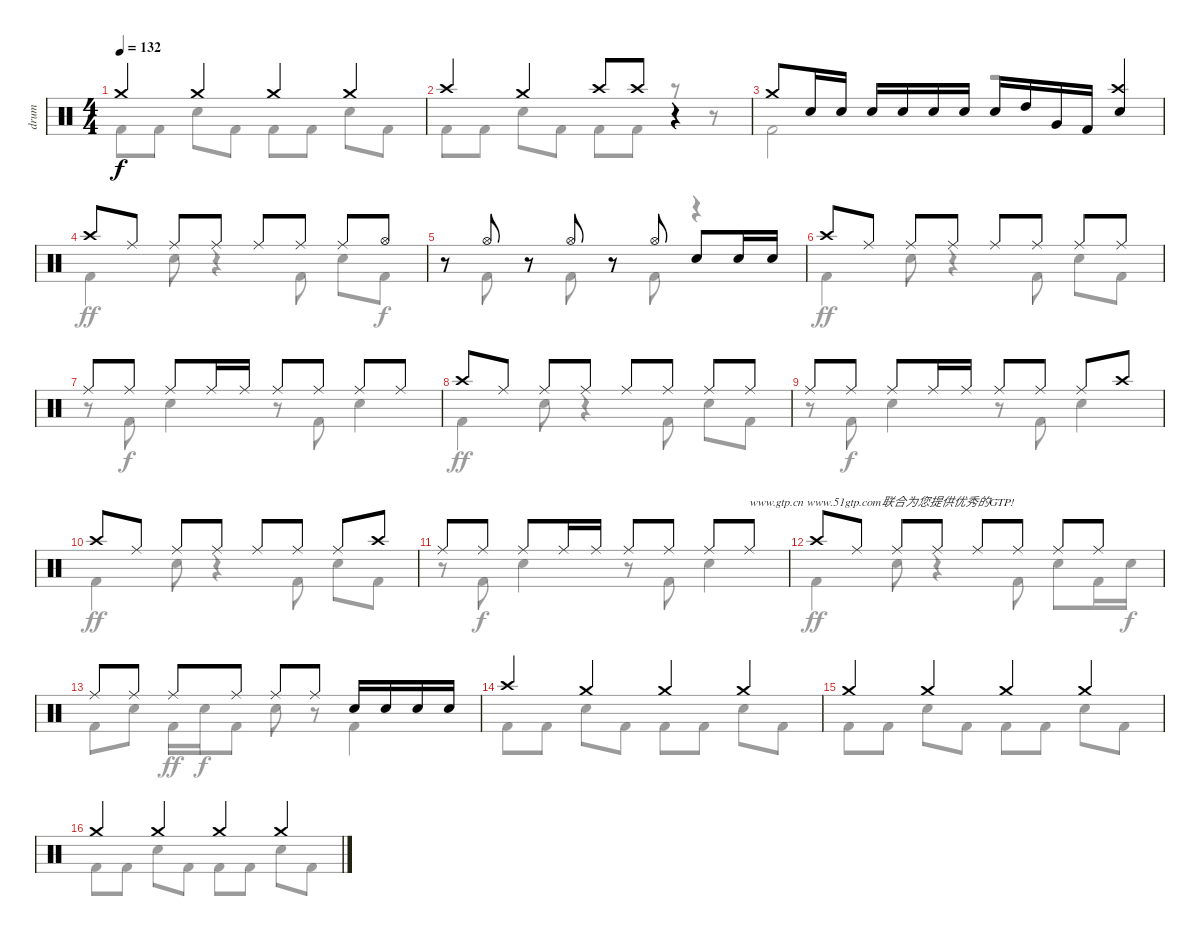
\track ("drum" "drum") {instrument percussion}
\staff {score}
\articulation defaults
\voice
\ts (4 4)
\tempo 132
\clef neutral
\ks c "Crash medium (hit)".4{dy f} "Crash medium (hit)".4 "Crash medium (hit)".4 "Crash medium (hit)".4
|
"Crash high (hit)".4 "Crash medium (hit)".4 "Crash high (hit)".8 "Crash high (hit)".8 r.4 |
"Crash medium (hit)".8 "Snare (hit) 2".16 "Snare (hit) 2".16 "Snare (hit) 2".16 "Snare (hit) 2".16 "Snare (hit) 2".16 "Snare (hit) 2".16 "Snare (hit) 2".16 "High Tom (hit)".16 "Very Low Tom (hit)".16 "Kick (hit) 2".16 ("Snare (hit) 2" "Crash high (hit)").4 |
"Crash high (hit)".8 "Ride (middle)".8 "Ride (middle)".8 "Ride (middle)".8 "Ride (middle)".8 "Ride (middle)".8 "Ride (middle)".8 "Hi-Hat (open)".8 |
r.8 "Hi-Hat (open)".8 r.8 "Hi-Hat (open)".8 r.8 "Hi-Hat (open)".8 "Snare (hit) 2".8 "Snare (hit) 2".16 "Snare (hit) 2".16 |
"Crash high (hit)".8 "Ride (middle)".8 "Ride (middle)".8 "Ride (middle)".8 "Ride (middle)".8 "Ride (middle)".8 "Ride (middle)".8 "Ride (middle)".8 |
"Ride (middle)".8 "Ride (middle)".8 "Ride (middle)".8 "Ride (middle)".16 "Ride (middle)".16 "Ride (middle)".8 "Ride (middle)".8 "Ride (middle)".8 "Ride (middle)".8 |
"Crash high (hit)".8 "Ride (middle)".8 "Ride (middle)".8 "Ride (middle)".8 "Ride (middle)".8 "Ride (middle)".8 "Ride (middle)".8 "Ride (middle)".8 |
"Ride (middle)".8 "Ride (middle)".8 "Ride (middle)".8 "Ride (middle)".16 "Ride (middle)".16 "Ride (middle)".8 "Ride (middle)".8 "Ride (middle)".8 "Crash high (hit)".8 |
"Crash high (hit)".8 "Ride (middle)".8 "Ride (middle)".8 "Ride (middle)".8 "Ride (middle)".8 "Ride (middle)".8 "Ride (middle)".8 "Crash high (hit)".8 |
"Ride (middle)".8 "Ride (middle)".8 "Ride (middle)".8 "Ride (middle)".16 "Ride (middle)".16 "Ride (middle)".8 "Ride (middle)".8 "Ride (middle)".8 "Ride (middle)".8{txt "www.gtp.cn www.51gtp.com联合为您提供优秀的GTP!"} |
"Crash high (hit)".8 "Ride (middle)".8 "Ride (middle)".8 "Ride (middle)".8 "Ride (middle)".8 "Ride (middle)".8 "Ride (middle)".8 "Ride (middle)".8 |
"Ride (middle)".8 "Ride (middle)".8 "Ride (middle)".8 "Ride (middle)".8 "Ride (middle)".8 "Ride (middle)".8 "Snare (hit) 2".16 "Snare (hit) 2".16 "Snare (hit) 2".16 "Snare (hit) 2".16 |
"Crash high (hit)".4 "Crash medium (hit)".4 "Crash medium (hit)".4 "Crash medium (hit)".4 |
"Crash medium (hit)".4 "Crash medium (hit)".4 "Crash medium (hit)".4 "Crash medium (hit)".4 |
"Crash medium (hit)".4 "Crash medium (hit)".4 "Crash medium (hit)".4 "Crash medium (hit)".4
\voice
\clef neutral
\ottava regular
\simile none
\ks c "Kick (hit) 2".8{dy f} "Kick (hit) 2".8 "Snare (hit) 2".8 "Kick (hit) 2".8 "Kick (hit) 2".8 "Kick (hit) 2".8 "Snare (hit) 2".8 "Kick (hit) 2".8
|
"Kick (hit) 2".8 "Kick (hit) 2".8 "Snare (hit) 2".8 "Kick (hit) 2".8 "Kick (hit) 2".8 "Kick (hit) 2".8 r.8 r.8 |
"Kick (hit) 2".2 r.2 |
"Kick (hit) 2".4{dy ff} "Snare (hit) 2".8 r.4 "Kick (hit) 2".8 "Snare (hit) 2".8 "Kick (hit) 2".8{dy f} |
r.8 "Kick (hit) 2".8 r.8 "Kick (hit) 2".8 r.8 "Kick (hit) 2".8 r.4 |
"Kick (hit) 2".4{dy ff} "Snare (hit) 2".8 r.4 "Kick (hit) 2".8 "Snare (hit) 2".8 "Kick (hit) 2".8 |
r.8 "Kick (hit) 2".8{dy f} "Snare (hit) 2".4 r.8 "Kick (hit) 2".8 "Snare (hit) 2".4 |
"Kick (hit) 2".4{dy ff} "Snare (hit) 2".8 r.4 "Kick (hit) 2".8 "Snare (hit) 2".8 "Kick (hit) 2".8 |
r.8 "Kick (hit) 2".8{dy f} "Snare (hit) 2".4 r.8 "Kick (hit) 2".8 "Snare (hit) 2".4 |
"Kick (hit) 2".4{dy ff} "Snare (hit) 2".8 r.4 "Kick (hit) 2".8 "Snare (hit) 2".8 "Kick (hit) 2".8 |
r.8 "Kick (hit) 2".8{dy f} "Snare (hit) 2".4 r.8 "Kick (hit) 2".8 "Snare (hit) 2".4 |
"Kick (hit) 2".4{dy ff} "Snare (hit) 2".8 r.4 "Kick (hit) 2".8 "Snare (hit) 2".8 "Kick (hit) 2".16 "Snare (hit) 2".16{dy f} |
"Kick (hit) 2".8 "Snare (hit) 2".8 "Kick (hit) 2".16{dy ff} "Snare (hit) 2".16{dy f} "Kick (hit) 2".8 "Snare (hit) 2".8 r.8 "Kick (hit) 2".4 |
"Kick (hit) 2".8 "Kick (hit) 2".8 "Snare (hit) 2".8 "Kick (hit) 2".8 "Kick (hit) 2".8 "Kick (hit) 2".8 "Snare (hit) 2".8 "Kick (hit) 2".8 |
"Kick (hit) 2".8 "Kick (hit) 2".8 "Snare (hit) 2".8 "Kick (hit) 2".8 "Kick (hit) 2".8 "Kick (hit) 2".8 "Snare (hit) 2".8 "Kick (hit) 2".8 |
"Kick (hit) 2".8 "Kick (hit) 2".8 "Snare (hit) 2".8 "Kick (hit) 2".8 "Kick (hit) 2".8 "Kick (hit) 2".8 "Snare (hit) 2".8 "Kick (hit) 2".8
